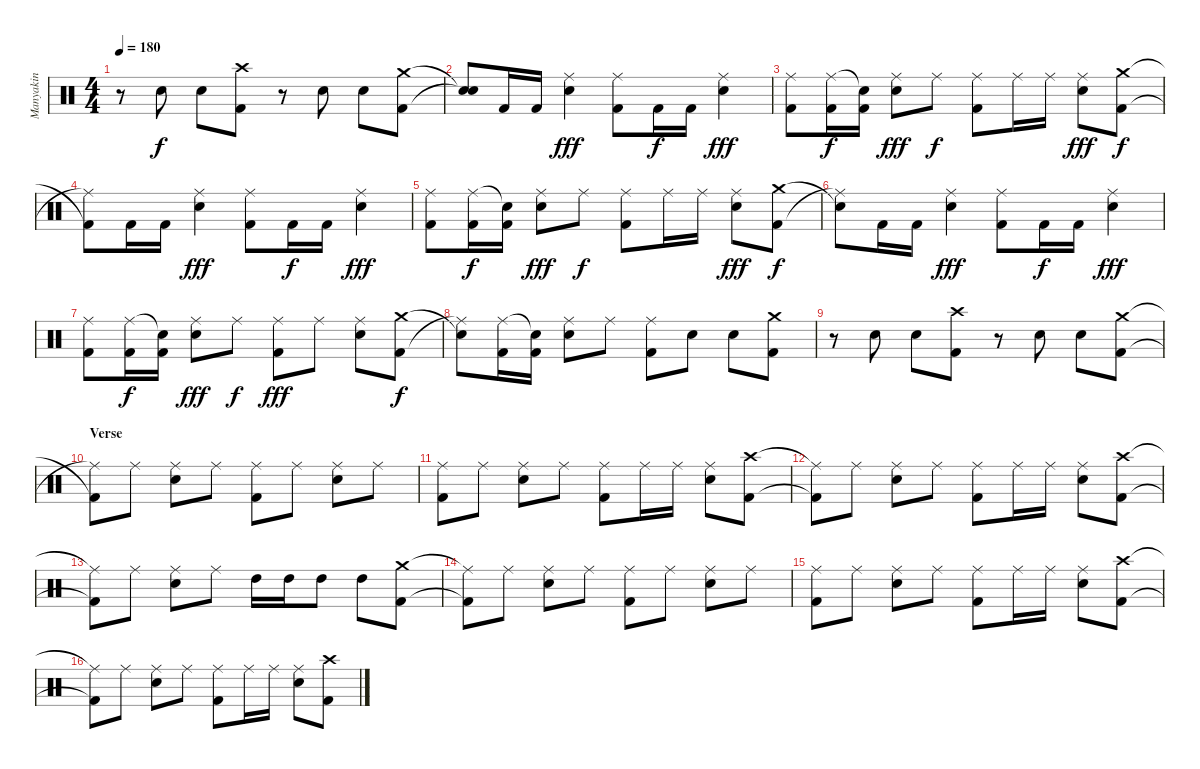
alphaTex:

\track ("Manyakin" "Manyakin") {instrument percussion}
\staff {score}
\articulation defaults
\ts (4 4)
\tempo 180
\clef neutral
\ks c
r.8{dy f} "Snare (hit) 2".8 "Snare (hit) 2".8 ("Kick (hit) 2" "Crash high (hit)").8 r.8 "Snare (hit) 2".8 "Snare (hit) 2".8 ("Kick (hit) 2" "Crash medium (hit)").8 |
("Snare (hit)"{t} "Snare (hit)"{t}).8 "Kick (hit) 2".16 "Kick (hit) 2".16 ("Snare (hit) 2" "Ride (middle)").4{dy fff} ("Kick (hit) 2" "Ride (middle)").8 "Kick (hit) 2".16{dy f} "Kick (hit) 2".16 ("Snare (hit) 2" "Ride (middle)").4{dy fff} |
("Kick (hit) 2" "Ride (middle)").8 ("Kick (hit) 2" "Ride (middle)").16{dy f} ("Kick (hit) 2" "Snare (hit)"{t}).16 ("Snare (hit) 2" "Ride (middle)").8{dy fff} "Ride (middle)".8{dy f} ("Kick (hit) 2" "Ride (middle)").8 "Ride (middle)".16 "Ride (middle)".16 ("Snare (hit) 2" "Ride (middle)").8{dy fff} ("Kick (hit) 2" "Crash medium (hit)").8{dy f} |
("Ride (middle)"{t} "Kick (hit) 2"{t}).8 "Kick (hit) 2".16 "Kick (hit) 2".16 ("Snare (hit) 2" "Ride (middle)").4{dy fff} ("Kick (hit) 2" "Ride (middle)").8 "Kick (hit) 2".16{dy f} "Kick (hit) 2".16 ("Snare (hit) 2" "Ride (middle)").4{dy fff} |
("Kick (hit) 2" "Ride (middle)").8 ("Kick (hit) 2" "Ride (middle)").16{dy f} ("Kick (hit) 2" "Snare (hit)"{t}).16 ("Snare (hit) 2" "Ride (middle)").8{dy fff} "Ride (middle)".8{dy f} ("Kick (hit) 2" "Ride (middle)").8 "Ride (middle)".16 "Ride (middle)".16 ("Snare (hit) 2" "Ride (middle)").8{dy fff} ("Kick (hit) 2" "Crash medium (hit)").8{dy f} |
("Ride (middle)"{t} "Snare (hit)"{t}).8 "Kick (hit) 2".16 "Kick (hit) 2".16 ("Snare (hit) 2" "Ride (middle)").4{dy fff} ("Kick (hit) 2" "Ride (middle)").8 "Kick (hit) 2".16{dy f} "Kick (hit) 2".16 ("Snare (hit) 2" "Ride (middle)").4{dy fff} |
("Kick (hit) 2" "Ride (middle)").8 ("Kick (hit) 2" "Ride (middle)").16{dy f} ("Kick (hit) 2" "Snare (hit)"{t}).16 ("Snare (hit) 2" "Ride (middle)").8{dy fff} "Ride (middle)".8{dy f} ("Kick (hit) 2" "Ride (middle)").8{dy fff} "Ride (middle)".8 ("Snare (hit) 2" "Ride (middle)").8 ("Kick (hit) 2" "Crash medium (hit)").8{dy f} |
("Ride (middle)"{t} "Snare (hit)"{t}).8 ("Kick (hit) 2" "Ride (middle)").16 ("Kick (hit) 2" "Snare (hit)"{t}).16 ("Snare (hit) 2" "Ride (middle)").8 "Ride (middle)".8 ("Kick (hit) 2" "Ride (middle)").8 "Snare (hit) 2".8 "Snare (hit) 2".8 ("Kick (hit) 2" "Crash medium (hit)").8 |
r.8 "Snare (hit) 2".8 "Snare (hit) 2".8 ("Kick (hit) 2" "Crash high (hit)").8 r.8 "Snare (hit) 2".8 "Snare (hit) 2".8 ("Kick (hit) 2" "Crash medium (hit)").8 |
\section ("" "Verse")
("Ride (middle)"{t} "Kick (hit) 2"{t}).8 "Ride (middle)".8 ("Ride (middle)" "Snare (hit) 2").8 "Ride (middle)".8 ("Ride (middle)" "Kick (hit) 2").8 "Ride (middle)".8 ("Ride (middle)" "Snare (hit) 2").8 "Ride (middle)".8 |
("Kick (hit) 2" "Ride (middle)").8 "Ride (middle)".8 ("Snare (hit) 2" "Ride (middle)").8 "Ride (middle)".8 ("Kick (hit) 2" "Ride (middle)").8 "Ride (middle)".16 "Ride (middle)".16 ("Snare (hit) 2" "Ride (middle)").8 ("Kick (hit) 2" "Crash high (hit)").8 |
("Kick (hit) 2"{t} "Ride (middle)"{t}).8 "Ride (middle)".8 ("Snare (hit) 2" "Ride (middle)").8 "Ride (middle)".8 ("Kick (hit) 2" "Ride (middle)").8 "Ride (middle)".16 "Ride (middle)".16 ("Snare (hit) 2" "Ride (middle)").8 ("Kick (hit) 2" "Crash high (hit)").8 |
("Kick (hit) 2"{t} "Ride (middle)"{t}).8 "Ride (middle)".8 ("Snare (hit) 2" "Ride (middle)").8 "Ride (middle)".8 "High Tom (hit)".16 "High Tom (hit)".16 "High Tom (hit)".8 "High Tom (hit)".8 ("Crash medium (hit)" "Kick (hit) 2").8 |
("Ride (middle)"{t} "Kick (hit) 2"{t}).8 "Ride (middle)".8 ("Ride (middle)" "Snare (hit) 2").8 "Ride (middle)".8 ("Ride (middle)" "Kick (hit) 2").8 "Ride (middle)".8 ("Ride (middle)" "Snare (hit) 2").8 "Ride (middle)".8 |
("Kick (hit) 2" "Ride (middle)").8 "Ride (middle)".8 ("Snare (hit) 2" "Ride (middle)").8 "Ride (middle)".8 ("Kick (hit) 2" "Ride (middle)").8 "Ride (middle)".16 "Ride (middle)".16 ("Snare (hit) 2" "Ride (middle)").8 ("Kick (hit) 2" "Crash high (hit)").8 |
("Kick (hit) 2"{t} "Ride (middle)"{t}).8 "Ride (middle)".8 ("Snare (hit) 2" "Ride (middle)").8 "Ride (middle)".8 ("Kick (hit) 2" "Ride (middle)").8 "Ride (middle)".16 "Ride (middle)".16 ("Snare (hit) 2" "Ride (middle)").8 ("Kick (hit) 2" "Crash high (hit)").8
